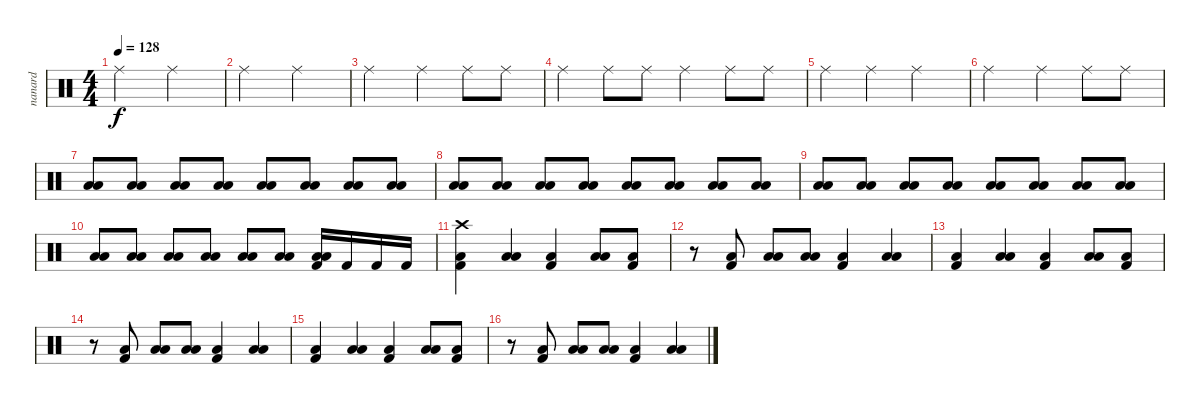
\track ("nanard" "nanard") {instrument percussion}
\staff {score}
\articulation defaults
\ts (4 4)
\tempo 128
\clef neutral
\ks c "Ride (middle)".2{dy f} "Ride (middle)".2
|
"Ride (middle)".2 "Ride (middle)".2 |
"Ride (middle)".2 "Ride (middle)".4 "Ride (middle)".8 "Ride (middle)".8 |
"Ride (middle)".4 "Ride (middle)".8 "Ride (middle)".8 "Ride (middle)".4 "Ride (middle)".8 "Ride (middle)".8 |
"Ride (middle)".4 "Ride (middle)".4 "Ride (middle)".2 |
"Ride (middle)".2 "Ride (middle)".4 "Ride (middle)".8 "Ride (middle)".8 |
("Low Tom (hit)" "Low Floor Tom (hit)").8 ("Low Tom (hit)" "Low Floor Tom (hit)").8 ("Low Tom (hit)" "Low Floor Tom (hit)").8 ("Low Tom (hit)" "Low Floor Tom (hit)").8 ("Low Tom (hit)" "Low Floor Tom (hit)").8 ("Low Tom (hit)" "Low Floor Tom (hit)").8 ("Low Tom (hit)" "Low Floor Tom (hit)").8 ("Low Tom (hit)" "Low Floor Tom (hit)").8 |
("Low Tom (hit)" "Low Floor Tom (hit)").8 ("Low Tom (hit)" "Low Floor Tom (hit)").8 ("Low Tom (hit)" "Low Floor Tom (hit)").8 ("Low Tom (hit)" "Low Floor Tom (hit)").8 ("Low Tom (hit)" "Low Floor Tom (hit)").8 ("Low Tom (hit)" "Low Floor Tom (hit)").8 ("Low Tom (hit)" "Low Floor Tom (hit)").8 ("Low Tom (hit)" "Low Floor Tom (hit)").8 |
("Low Tom (hit)" "Low Floor Tom (hit)").8 ("Low Tom (hit)" "Low Floor Tom (hit)").8 ("Low Tom (hit)" "Low Floor Tom (hit)").8 ("Low Tom (hit)" "Low Floor Tom (hit)").8 ("Low Tom (hit)" "Low Floor Tom (hit)").8 ("Low Tom (hit)" "Low Floor Tom (hit)").8 ("Low Tom (hit)" "Low Floor Tom (hit)").8 ("Low Tom (hit)" "Low Floor Tom (hit)").8 |
("Low Tom (hit)" "Low Floor Tom (hit)").8 ("Low Tom (hit)" "Low Floor Tom (hit)").8 ("Low Tom (hit)" "Low Floor Tom (hit)").8 ("Low Tom (hit)" "Low Floor Tom (hit)").8 ("Low Tom (hit)" "Low Floor Tom (hit)").8 ("Low Tom (hit)" "Low Floor Tom (hit)").8 ("Low Tom (hit)" "Low Floor Tom (hit)" "Kick (hit) 2").16 "Kick (hit) 2".16 "Kick (hit) 2".16 "Kick (hit) 2".16 |
("Crash high (hit)" "Low Floor Tom (hit)" "Kick (hit) 2").4 ("Low Tom (hit)" "Low Floor Tom (hit)").4 ("Low Floor Tom (hit)" "Kick (hit) 2").4 ("Low Tom (hit)" "Low Floor Tom (hit)").8 ("Low Floor Tom (hit)" "Kick (hit) 2").8 |
r.8 ("Low Floor Tom (hit)" "Kick (hit) 2").8 ("Low Tom (hit)" "Low Floor Tom (hit)").8 ("Low Tom (hit)" "Low Floor Tom (hit)").8 ("Low Floor Tom (hit)" "Kick (hit) 2").4 ("Low Tom (hit)" "Low Floor Tom (hit)").4 |
("Low Floor Tom (hit)" "Kick (hit) 2").4 ("Low Tom (hit)" "Low Floor Tom (hit)").4 ("Low Floor Tom (hit)" "Kick (hit) 2").4 ("Low Tom (hit)" "Low Floor Tom (hit)").8 ("Low Floor Tom (hit)" "Kick (hit) 2").8 |
r.8 ("Low Floor Tom (hit)" "Kick (hit) 2").8 ("Low Tom (hit)" "Low Floor Tom (hit)").8 ("Low Tom (hit)" "Low Floor Tom (hit)").8 ("Low Floor Tom (hit)" "Kick (hit) 2").4 ("Low Tom (hit)" "Low Floor Tom (hit)").4 |
("Low Floor Tom (hit)" "Kick (hit) 2").4 ("Low Tom (hit)" "Low Floor Tom (hit)").4 ("Low Floor Tom (hit)" "Kick (hit) 2").4 ("Low Tom (hit)" "Low Floor Tom (hit)").8 ("Low Floor Tom (hit)" "Kick (hit) 2").8 |
r.8 ("Low Floor Tom (hit)" "Kick (hit) 2").8 ("Low Tom (hit)" "Low Floor Tom (hit)").8 ("Low Tom (hit)" "Low Floor Tom (hit)").8 ("Low Floor Tom (hit)" "Kick (hit) 2").4 ("Low Tom (hit)" "Low Floor Tom (hit)").4
